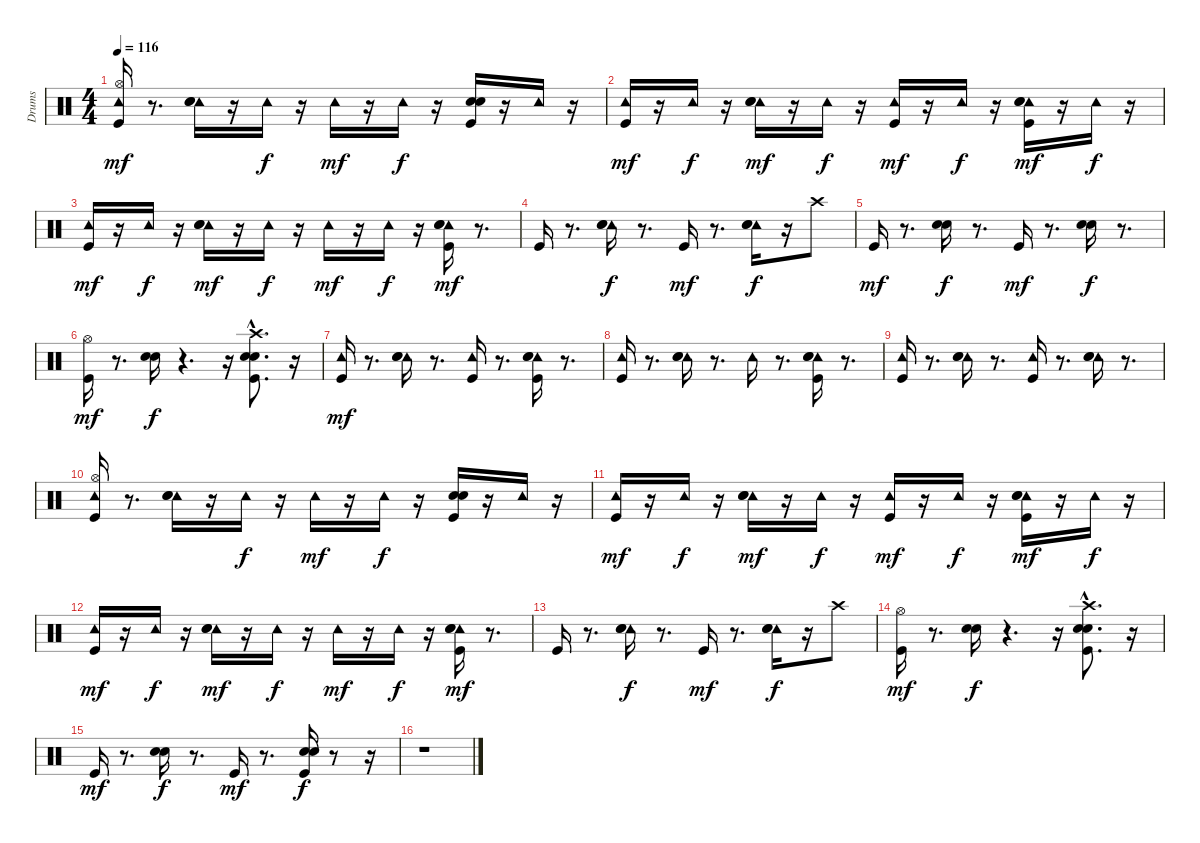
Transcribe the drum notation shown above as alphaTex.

\track ("Drums" "Drums") {instrument percussion}
\staff {score}
\articulation defaults
\ts (4 4)
\tempo 116
\clef neutral
\ks c
("Tambourine (hit)" "Hi-Hat (open)" "Kick (hit)").16{dy mf} r.8{d} ("Tambourine (hit)" "Electric Snare (hit)" "Snare (hit) 2").16 r.16 "Tambourine (hit)".16{dy f} r.16 "Tambourine (hit)".16{dy mf} r.16 "Tambourine (hit)".16{dy f} r.16 ("Electric Snare (hit)" "Snare (hit) 2" "Kick (hit)").16 r.16 "Tambourine (hit)".16 r.16 |
("Tambourine (hit)" "Kick (hit)").16{dy mf} r.16 "Tambourine (hit)".16{dy f} r.16 ("Tambourine (hit)" "Electric Snare (hit)" "Snare (hit) 2").16{dy mf} r.16 "Tambourine (hit)".16{dy f} r.16 ("Tambourine (hit)" "Kick (hit)").16{dy mf} r.16 "Tambourine (hit)".16{dy f} r.16 ("Tambourine (hit)" "Electric Snare (hit)" "Snare (hit) 2" "Kick (hit)").16{dy mf} r.16 "Tambourine (hit)".16{dy f} r.16 |
("Tambourine (hit)" "Kick (hit)").16{dy mf} r.16 "Tambourine (hit)".16{dy f} r.16 ("Tambourine (hit)" "Electric Snare (hit)" "Snare (hit) 2").16{dy mf} r.16 "Tambourine (hit)".16{dy f} r.16 "Tambourine (hit)".16{dy mf} r.16 "Tambourine (hit)".16{dy f} r.16 ("Tambourine (hit)" "Electric Snare (hit)" "Snare (hit) 2" "Kick (hit)").16{dy mf} r.8{d} |
"Kick (hit)".16 r.8{d} ("Tambourine (hit)" "Electric Snare (hit)" "Snare (hit) 2").16{dy f} r.8{d} "Kick (hit)".16{dy mf} r.8{d} ("Tambourine (hit)" "Electric Snare (hit)" "Snare (hit) 2").16{dy f} r.16 "Crash high (hit)".8 |
"Kick (hit)".16{dy mf} r.8{d} ("Electric Snare (hit)" "Snare (hit) 2").16{dy f} r.8{d} "Kick (hit)".16{dy mf} r.8{d} ("Electric Snare (hit)" "Snare (hit) 2").16{dy f} r.8{d} |
("Hi-Hat (open)" "Kick (hit)").16{dy mf} r.8{d} ("Electric Snare (hit)" "Snare (hit) 2").16{dy f} r.4{d} r.16 ("Crash high (hit)"{hac} "Electric Snare (hit)" "Snare (hit) 2" "Kick (hit)").8{d} r.16 |
("Tambourine (hit)" "Kick (hit)").16{dy mf} r.8{d} ("Tambourine (hit)" "Electric Snare (hit)" "Snare (hit) 2").16 r.8{d} ("Tambourine (hit)" "Kick (hit)").16 r.8{d} ("Tambourine (hit)" "Electric Snare (hit)" "Snare (hit) 2" "Kick (hit)").16 r.8{d} |
("Tambourine (hit)" "Kick (hit)").16 r.8{d} ("Tambourine (hit)" "Electric Snare (hit)" "Snare (hit) 2").16 r.8{d} "Tambourine (hit)".16 r.8{d} ("Tambourine (hit)" "Electric Snare (hit)" "Snare (hit) 2" "Kick (hit)").16 r.8{d} |
("Tambourine (hit)" "Kick (hit)").16 r.8{d} ("Tambourine (hit)" "Electric Snare (hit)" "Snare (hit) 2").16 r.8{d} ("Tambourine (hit)" "Kick (hit)").16 r.8{d} ("Tambourine (hit)" "Electric Snare (hit)" "Snare (hit) 2").16 r.8{d} |
("Tambourine (hit)" "Hi-Hat (open)" "Kick (hit)").16 r.8{d} ("Tambourine (hit)" "Electric Snare (hit)" "Snare (hit) 2").16 r.16 "Tambourine (hit)".16{dy f} r.16 "Tambourine (hit)".16{dy mf} r.16 "Tambourine (hit)".16{dy f} r.16 ("Electric Snare (hit)" "Snare (hit) 2" "Kick (hit)").16 r.16 "Tambourine (hit)".16 r.16 |
("Tambourine (hit)" "Kick (hit)").16{dy mf} r.16 "Tambourine (hit)".16{dy f} r.16 ("Tambourine (hit)" "Electric Snare (hit)" "Snare (hit) 2").16{dy mf} r.16 "Tambourine (hit)".16{dy f} r.16 ("Tambourine (hit)" "Kick (hit)").16{dy mf} r.16 "Tambourine (hit)".16{dy f} r.16 ("Tambourine (hit)" "Electric Snare (hit)" "Snare (hit) 2" "Kick (hit)").16{dy mf} r.16 "Tambourine (hit)".16{dy f} r.16 |
("Tambourine (hit)" "Kick (hit)").16{dy mf} r.16 "Tambourine (hit)".16{dy f} r.16 ("Tambourine (hit)" "Electric Snare (hit)" "Snare (hit) 2").16{dy mf} r.16 "Tambourine (hit)".16{dy f} r.16 "Tambourine (hit)".16{dy mf} r.16 "Tambourine (hit)".16{dy f} r.16 ("Tambourine (hit)" "Electric Snare (hit)" "Snare (hit) 2" "Kick (hit)").16{dy mf} r.8{d} |
"Kick (hit)".16 r.8{d} ("Tambourine (hit)" "Electric Snare (hit)" "Snare (hit) 2").16{dy f} r.8{d} "Kick (hit)".16{dy mf} r.8{d} ("Tambourine (hit)" "Electric Snare (hit)" "Snare (hit) 2").16{dy f} r.16 "Crash high (hit)".8 |
("Hi-Hat (open)" "Kick (hit)").16{dy mf} r.8{d} ("Electric Snare (hit)" "Snare (hit) 2").16{dy f} r.4{d} r.16 ("Crash high (hit)"{hac} "Electric Snare (hit)" "Snare (hit) 2" "Kick (hit)").8{d} r.16 |
"Kick (hit)".16{dy mf} r.8{d} ("Electric Snare (hit)" "Snare (hit) 2").16{dy f} r.8{d} "Kick (hit)".16{dy mf} r.8{d} ("Electric Snare (hit)" "Snare (hit) 2" "Kick (hit)").16{dy f} r.8 r.16 |
r.1
